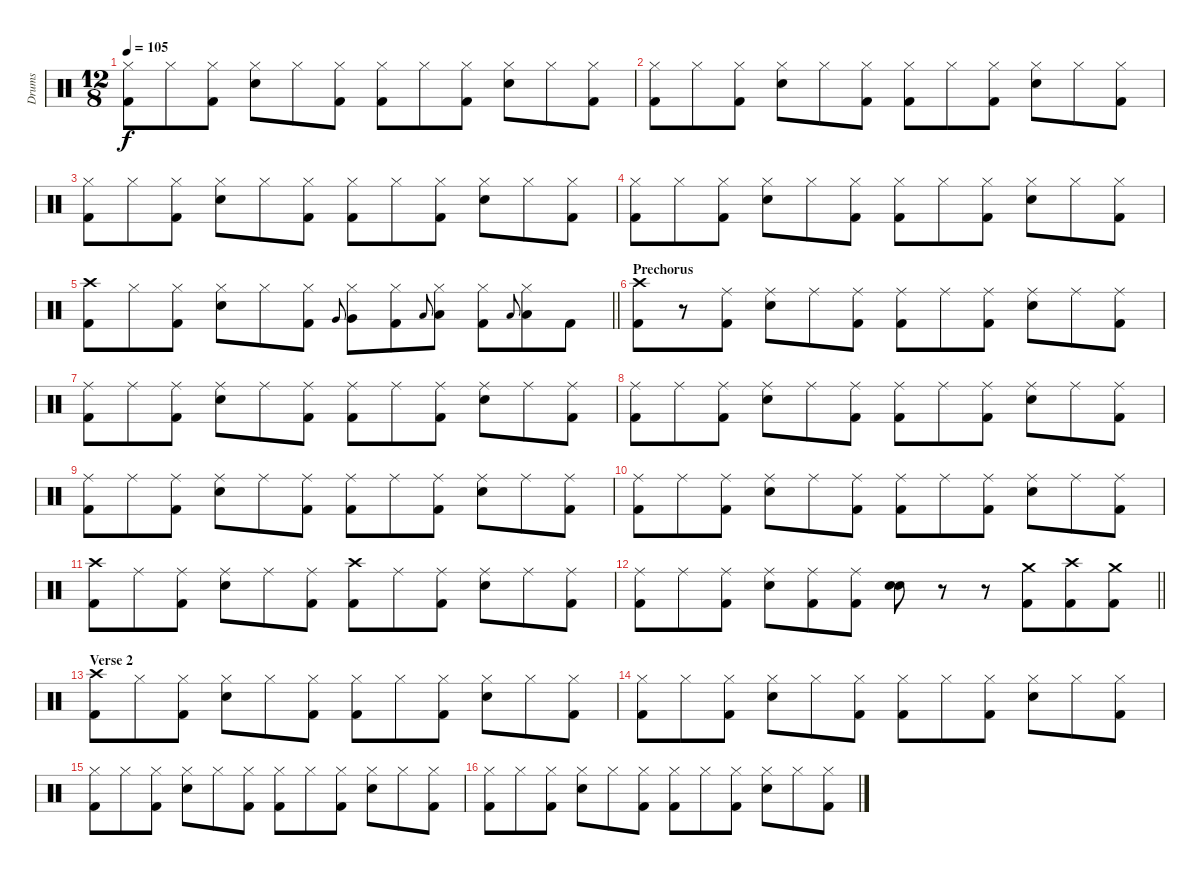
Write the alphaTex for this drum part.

\track ("Drums" "Drums") {instrument percussion}
\staff {score}
\articulation defaults
\ts (12 8)
\tempo 105
\clef neutral
\ks c
("Hi-Hat (closed)" "Kick (hit) 2").8{dy f} "Hi-Hat (closed)".8 ("Hi-Hat (closed)" "Kick (hit) 2").8 ("Hi-Hat (closed)" "Snare (hit) 2").8 "Hi-Hat (closed)".8 ("Hi-Hat (closed)" "Kick (hit) 2").8 ("Hi-Hat (closed)" "Kick (hit) 2").8 "Hi-Hat (closed)".8 ("Hi-Hat (closed)" "Kick (hit) 2").8 ("Hi-Hat (closed)" "Snare (hit) 2").8 "Hi-Hat (closed)".8 ("Hi-Hat (closed)" "Kick (hit) 2").8 |
("Hi-Hat (closed)" "Kick (hit) 2").8 "Hi-Hat (closed)".8 ("Hi-Hat (closed)" "Kick (hit) 2").8 ("Hi-Hat (closed)" "Snare (hit) 2").8 "Hi-Hat (closed)".8 ("Hi-Hat (closed)" "Kick (hit) 2").8 ("Hi-Hat (closed)" "Kick (hit) 2").8 "Hi-Hat (closed)".8 ("Hi-Hat (closed)" "Kick (hit) 2").8 ("Hi-Hat (closed)" "Snare (hit) 2").8 "Hi-Hat (closed)".8 ("Hi-Hat (closed)" "Kick (hit) 2").8 |
("Hi-Hat (closed)" "Kick (hit) 2").8 "Hi-Hat (closed)".8 ("Hi-Hat (closed)" "Kick (hit) 2").8 ("Hi-Hat (closed)" "Snare (hit) 2").8 "Hi-Hat (closed)".8 ("Hi-Hat (closed)" "Kick (hit) 2").8 ("Hi-Hat (closed)" "Kick (hit) 2").8 "Hi-Hat (closed)".8 ("Hi-Hat (closed)" "Kick (hit) 2").8 ("Hi-Hat (closed)" "Snare (hit) 2").8 "Hi-Hat (closed)".8 ("Hi-Hat (closed)" "Kick (hit) 2").8 |
("Hi-Hat (closed)" "Kick (hit) 2").8 "Hi-Hat (closed)".8 ("Hi-Hat (closed)" "Kick (hit) 2").8 ("Hi-Hat (closed)" "Snare (hit) 2").8 "Hi-Hat (closed)".8 ("Hi-Hat (closed)" "Kick (hit) 2").8 ("Hi-Hat (closed)" "Kick (hit) 2").8 "Hi-Hat (closed)".8 ("Hi-Hat (closed)" "Kick (hit) 2").8 ("Hi-Hat (closed)" "Snare (hit) 2").8 "Hi-Hat (closed)".8 ("Hi-Hat (closed)" "Kick (hit) 2").8 |
\barLineRight lightlight
("Crash high (hit)" "Kick (hit) 2").8 "Hi-Hat (closed)".8 ("Hi-Hat (closed)" "Kick (hit) 2").8 ("Hi-Hat (closed)" "Snare (hit) 2").8 "Hi-Hat (closed)".8 ("Hi-Hat (closed)" "Kick (hit) 2").8 "Very Low Tom (hit)".8{gr onbeat} ("Hi-Hat (closed)" "Very Low Tom (hit)").8 ("Hi-Hat (closed)" "Kick (hit) 2").8 "Low Tom (hit)".8{gr onbeat} ("Hi-Hat (closed)" "Low Tom (hit)").8 ("Hi-Hat (closed)" "Kick (hit) 2").8 "Low Floor Tom (hit)".8{gr onbeat} ("Hi-Hat (closed)" "Low Floor Tom (hit)").8 "Kick (hit) 2".8 |
\section ("" "Prechorus")
("Crash high (hit)" "Kick (hit) 2").8 r.8 ("Ride (middle)" "Kick (hit) 2").8 ("Ride (middle)" "Snare (hit) 2").8 "Ride (middle)".8 ("Ride (middle)" "Kick (hit) 2").8 ("Ride (middle)" "Kick (hit) 2").8 "Ride (middle)".8 ("Ride (middle)" "Kick (hit) 2").8 ("Ride (middle)" "Snare (hit) 2").8 "Ride (middle)".8 ("Ride (middle)" "Kick (hit) 2").8 |
("Ride (middle)" "Kick (hit) 2").8 "Ride (middle)".8 ("Ride (middle)" "Kick (hit) 2").8 ("Ride (middle)" "Snare (hit) 2").8 "Ride (middle)".8 ("Ride (middle)" "Kick (hit) 2").8 ("Ride (middle)" "Kick (hit) 2").8 "Ride (middle)".8 ("Ride (middle)" "Kick (hit) 2").8 ("Ride (middle)" "Snare (hit) 2").8 "Ride (middle)".8 ("Ride (middle)" "Kick (hit) 2").8 |
("Ride (middle)" "Kick (hit) 2").8 "Ride (middle)".8 ("Ride (middle)" "Kick (hit) 2").8 ("Ride (middle)" "Snare (hit) 2").8 "Ride (middle)".8 ("Ride (middle)" "Kick (hit) 2").8 ("Ride (middle)" "Kick (hit) 2").8 "Ride (middle)".8 ("Ride (middle)" "Kick (hit) 2").8 ("Ride (middle)" "Snare (hit) 2").8 "Ride (middle)".8 ("Ride (middle)" "Kick (hit) 2").8 |
("Ride (middle)" "Kick (hit) 2").8 "Ride (middle)".8 ("Ride (middle)" "Kick (hit) 2").8 ("Ride (middle)" "Snare (hit) 2").8 "Ride (middle)".8 ("Ride (middle)" "Kick (hit) 2").8 ("Ride (middle)" "Kick (hit) 2").8 "Ride (middle)".8 ("Ride (middle)" "Kick (hit) 2").8 ("Ride (middle)" "Snare (hit) 2").8 "Ride (middle)".8 ("Ride (middle)" "Kick (hit) 2").8 |
("Ride (middle)" "Kick (hit) 2").8 "Ride (middle)".8 ("Ride (middle)" "Kick (hit) 2").8 ("Ride (middle)" "Snare (hit) 2").8 "Ride (middle)".8 ("Ride (middle)" "Kick (hit) 2").8 ("Ride (middle)" "Kick (hit) 2").8 "Ride (middle)".8 ("Ride (middle)" "Kick (hit) 2").8 ("Ride (middle)" "Snare (hit) 2").8 "Ride (middle)".8 ("Ride (middle)" "Kick (hit) 2").8 |
("Crash high (hit)" "Kick (hit) 2").8 "Ride (middle)".8 ("Ride (middle)" "Kick (hit) 2").8 ("Ride (middle)" "Snare (hit) 2").8 "Ride (middle)".8 ("Ride (middle)" "Kick (hit) 2").8 ("Crash high (hit)" "Kick (hit) 2").8 "Ride (middle)".8 ("Ride (middle)" "Kick (hit) 2").8 ("Ride (middle)" "Snare (hit) 2").8 "Ride (middle)".8 ("Ride (middle)" "Kick (hit) 2").8 |
\barLineRight lightlight
("Ride (middle)" "Kick (hit) 2").8 "Ride (middle)".8 ("Ride (middle)" "Kick (hit) 2").8 ("Ride (middle)" "Snare (hit) 2").8 ("Ride (middle)" "Kick (hit) 2").8 ("Ride (middle)" "Kick (hit) 2").8 ("Snare (hit) 2" "Snare (hit) 2").8 r.8 r.8 ("Crash medium (hit)" "Kick (hit) 2").8 ("Crash high (hit)" "Kick (hit) 2").8 ("Crash medium (hit)" "Kick (hit) 2").8 |
\section ("" "Verse 2")
("Crash high (hit)" "Kick (hit) 2").8 "Hi-Hat (closed)".8 ("Hi-Hat (closed)" "Kick (hit) 2").8 ("Hi-Hat (closed)" "Snare (hit) 2").8 "Hi-Hat (closed)".8 ("Hi-Hat (closed)" "Kick (hit) 2").8 ("Hi-Hat (closed)" "Kick (hit) 2").8 "Hi-Hat (closed)".8 ("Hi-Hat (closed)" "Kick (hit) 2").8 ("Hi-Hat (closed)" "Snare (hit) 2").8 "Hi-Hat (closed)".8 ("Hi-Hat (closed)" "Kick (hit) 2").8 |
("Hi-Hat (closed)" "Kick (hit) 2").8 "Hi-Hat (closed)".8 ("Hi-Hat (closed)" "Kick (hit) 2").8 ("Hi-Hat (closed)" "Snare (hit) 2").8 "Hi-Hat (closed)".8 ("Hi-Hat (closed)" "Kick (hit) 2").8 ("Hi-Hat (closed)" "Kick (hit) 2").8 "Hi-Hat (closed)".8 ("Hi-Hat (closed)" "Kick (hit) 2").8 ("Hi-Hat (closed)" "Snare (hit) 2").8 "Hi-Hat (closed)".8 ("Hi-Hat (closed)" "Kick (hit) 2").8 |
("Hi-Hat (closed)" "Kick (hit) 2").8 "Hi-Hat (closed)".8 ("Hi-Hat (closed)" "Kick (hit) 2").8 ("Hi-Hat (closed)" "Snare (hit) 2").8 "Hi-Hat (closed)".8 ("Hi-Hat (closed)" "Kick (hit) 2").8 ("Hi-Hat (closed)" "Kick (hit) 2").8 "Hi-Hat (closed)".8 ("Hi-Hat (closed)" "Kick (hit) 2").8 ("Hi-Hat (closed)" "Snare (hit) 2").8 "Hi-Hat (closed)".8 ("Hi-Hat (closed)" "Kick (hit) 2").8 |
("Hi-Hat (closed)" "Kick (hit) 2").8 "Hi-Hat (closed)".8 ("Hi-Hat (closed)" "Kick (hit) 2").8 ("Hi-Hat (closed)" "Snare (hit) 2").8 "Hi-Hat (closed)".8 ("Hi-Hat (closed)" "Kick (hit) 2").8 ("Hi-Hat (closed)" "Kick (hit) 2").8 "Hi-Hat (closed)".8 ("Hi-Hat (closed)" "Kick (hit) 2").8 ("Hi-Hat (closed)" "Snare (hit) 2").8 "Hi-Hat (closed)".8 ("Hi-Hat (closed)" "Kick (hit) 2").8
